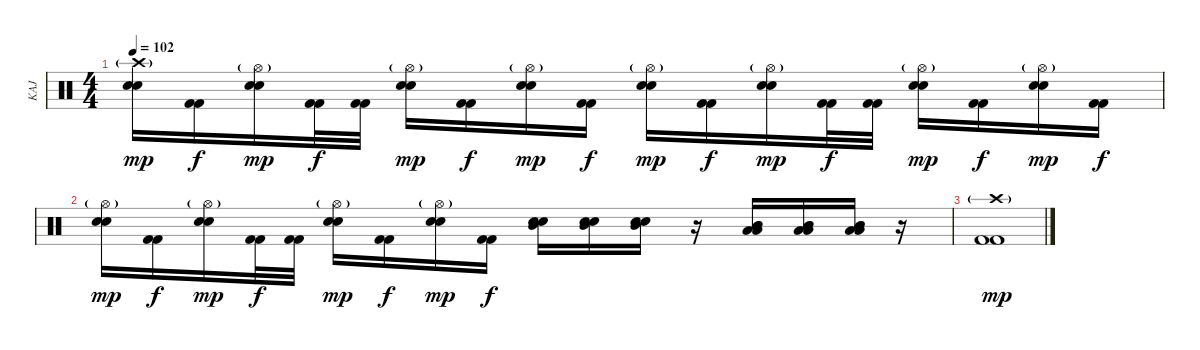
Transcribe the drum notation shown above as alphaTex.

\track ("KAJ" "KAJ") {instrument percussion}
\staff {score}
\articulation defaults
\ts (4 4)
\tempo 102
\clef neutral
\ks c
("Crash high (hit)"{g} "Electric Snare (hit)" "Electric Snare (hit)").16{dy mp} ("Kick (hit) 2" "Kick (hit) 2").16{dy f} ("Hi-Hat (open)"{g} "Electric Snare (hit)" "Electric Snare (hit)").16{dy mp} ("Kick (hit) 2" "Kick (hit) 2").32{dy f} ("Kick (hit) 2" "Kick (hit) 2").32 ("Hi-Hat (open)"{g} "Electric Snare (hit)" "Electric Snare (hit)").16{dy mp} ("Kick (hit) 2" "Kick (hit) 2").16{dy f} ("Hi-Hat (open)"{g} "Electric Snare (hit)" "Electric Snare (hit)").16{dy mp} ("Kick (hit) 2" "Kick (hit) 2").16{dy f} ("Hi-Hat (open)"{g} "Electric Snare (hit)" "Electric Snare (hit)").16{dy mp} ("Kick (hit) 2" "Kick (hit) 2").16{dy f} ("Hi-Hat (open)"{g} "Electric Snare (hit)" "Electric Snare (hit)").16{dy mp} ("Kick (hit) 2" "Kick (hit) 2").32{dy f} ("Kick (hit) 2" "Kick (hit) 2").32 ("Hi-Hat (open)"{g} "Electric Snare (hit)" "Electric Snare (hit)").16{dy mp} ("Kick (hit) 2" "Kick (hit) 2").16{dy f} ("Hi-Hat (open)"{g} "Electric Snare (hit)" "Electric Snare (hit)").16{dy mp} ("Kick (hit) 2" "Kick (hit) 2").16{dy f} |
("Hi-Hat (open)"{g} "Electric Snare (hit)" "Electric Snare (hit)").16{dy mp} ("Kick (hit) 2" "Kick (hit) 2").16{dy f} ("Hi-Hat (open)"{g} "Electric Snare (hit)" "Electric Snare (hit)").16{dy mp} ("Kick (hit) 2" "Kick (hit) 2").32{dy f} ("Kick (hit) 2" "Kick (hit) 2").32 ("Hi-Hat (open)"{g} "Electric Snare (hit)" "Electric Snare (hit)").16{dy mp} ("Kick (hit) 2" "Kick (hit) 2").16{dy f} ("Hi-Hat (open)"{g} "Electric Snare (hit)" "Electric Snare (hit)").16{dy mp} ("Kick (hit) 2" "Kick (hit) 2").16{dy f} ("Electric Snare (hit)" "Electric Snare (hit)" "Mid Tom (hit)").16 ("Electric Snare (hit)" "Electric Snare (hit)" "Mid Tom (hit)").16 ("Electric Snare (hit)" "Electric Snare (hit)" "Mid Tom (hit)").16 r.16 ("Low Tom (hit)" "Mid Tom (hit)" "Mid Tom (hit)" "Low Tom (hit)").16 ("Low Tom (hit)" "Mid Tom (hit)" "Mid Tom (hit)" "Low Tom (hit)").16 ("Low Tom (hit)" "Mid Tom (hit)" "Mid Tom (hit)" "Low Tom (hit)").16 r.16 |
("Crash high (hit)"{g} "Kick (hit) 2" "Kick (hit) 2").1{dy mp}
